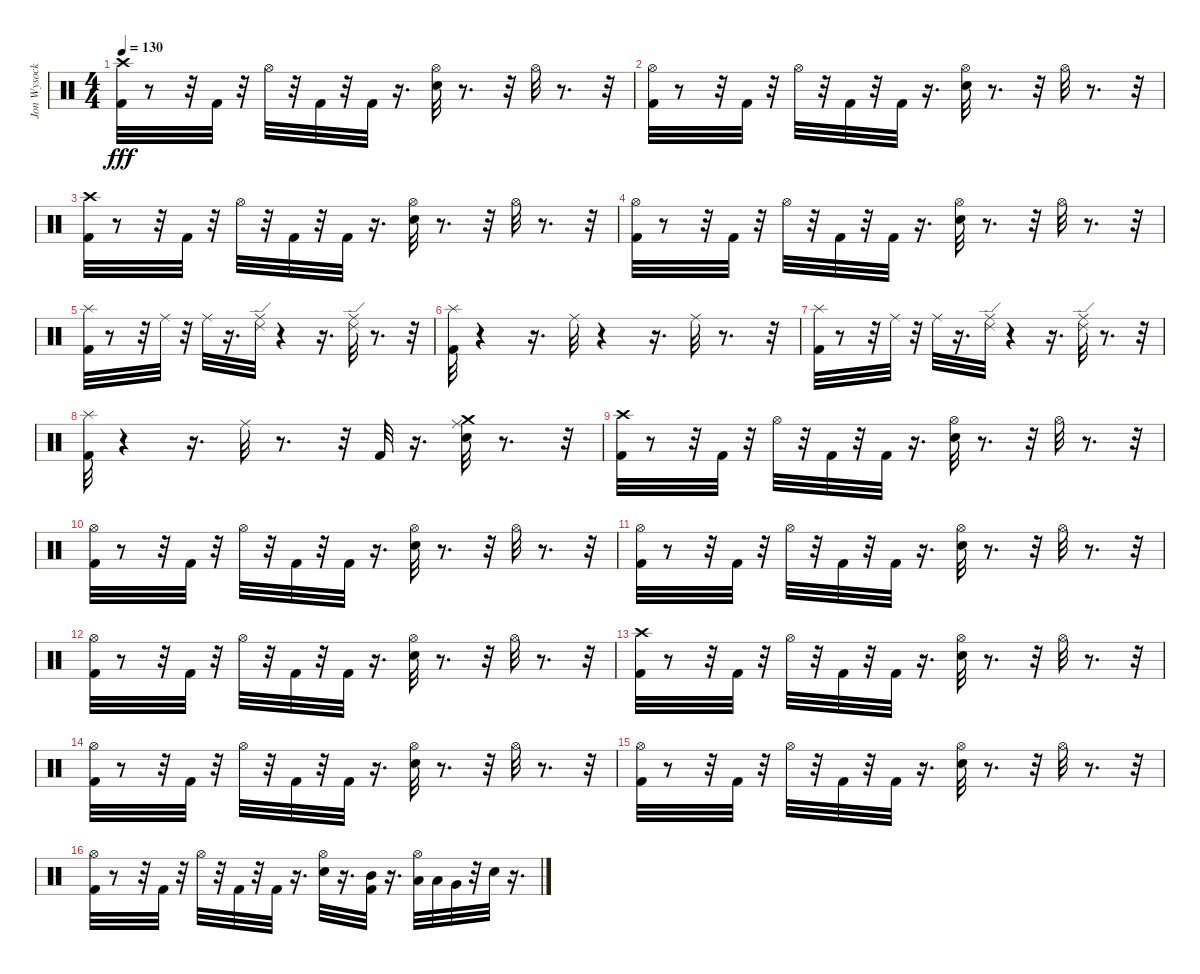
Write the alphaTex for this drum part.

\track ("Jon Wysocki - Drums" "Jon Wysock") {instrument percussion}
\staff {score}
\articulation defaults
\ts (4 4)
\tempo 130
\clef neutral
\ks c
("Crash high (hit)" "Kick (hit) 2").32{dy fff} r.8 r.32 "Kick (hit) 2".32 r.32 "Hi-Hat (open)".32 r.32 "Kick (hit) 2".32 r.32 "Kick (hit) 2".32 r.16{d} ("Hi-Hat (open)" "Electric Snare (hit)").32 r.8{d} r.32 "Hi-Hat (open)".32 r.8{d} r.32 |
("Hi-Hat (open)" "Kick (hit) 2").32 r.8 r.32 "Kick (hit) 2".32 r.32 "Hi-Hat (open)".32 r.32 "Kick (hit) 2".32 r.32 "Kick (hit) 2".32 r.16{d} ("Hi-Hat (open)" "Electric Snare (hit)").32 r.8{d} r.32 "Hi-Hat (open)".32 r.8{d} r.32 |
("Crash high (hit)" "Kick (hit) 2").32 r.8 r.32 "Kick (hit) 2".32 r.32 "Hi-Hat (open)".32 r.32 "Kick (hit) 2".32 r.32 "Kick (hit) 2".32 r.16{d} ("Hi-Hat (open)" "Electric Snare (hit)").32 r.8{d} r.32 "Hi-Hat (open)".32 r.8{d} r.32 |
("Hi-Hat (open)" "Kick (hit) 2").32 r.8 r.32 "Kick (hit) 2".32 r.32 "Hi-Hat (open)".32 r.32 "Kick (hit) 2".32 r.32 "Kick (hit) 2".32 r.16{d} ("Hi-Hat (open)" "Electric Snare (hit)").32 r.8{d} r.32 "Hi-Hat (open)".32 r.8{d} r.32 |
("Kick (hit) 2" "Splash (hit)").32 r.8 r.32 "Ride (middle)".32 r.32 "Ride (middle)".32 r.16{d} ("Ride (edge) 2" "Ride (middle)").32 r.4 r.16{d} ("Ride (edge) 2" "Ride (middle)").32 r.8{d} r.32 |
("Splash (hit)" "Kick (hit) 2").32 r.4 r.16{d} "Ride (middle)".32 r.4 r.16{d} "Ride (middle)".32 r.8{d} r.32 |
("Splash (hit)" "Kick (hit) 2").32 r.8 r.32 "Ride (middle)".32 r.32 "Ride (middle)".32 r.16{d} ("Ride (edge) 2" "Ride (middle)").32 r.4 r.16{d} ("Ride (edge) 2" "Ride (middle)").32 r.8{d} r.32 |
("Splash (hit)" "Kick (hit) 2").32 r.4 r.16{d} "Ride (middle)".32 r.8{d} r.32 "Kick (hit) 2".32 r.16{d} ("Crash medium (hit)" "Ride (middle)" "Electric Snare (hit)").32 r.8{d} r.32 |
("Crash high (hit)" "Kick (hit) 2").32 r.8 r.32 "Kick (hit) 2".32 r.32 "Hi-Hat (open)".32 r.32 "Kick (hit) 2".32 r.32 "Kick (hit) 2".32 r.16{d} ("Hi-Hat (open)" "Electric Snare (hit)").32 r.8{d} r.32 "Hi-Hat (open)".32 r.8{d} r.32 |
("Hi-Hat (open)" "Kick (hit) 2").32 r.8 r.32 "Kick (hit) 2".32 r.32 "Hi-Hat (open)".32 r.32 "Kick (hit) 2".32 r.32 "Kick (hit) 2".32 r.16{d} ("Hi-Hat (open)" "Electric Snare (hit)").32 r.8{d} r.32 "Hi-Hat (open)".32 r.8{d} r.32 |
("Hi-Hat (open)" "Kick (hit) 2").32 r.8 r.32 "Kick (hit) 2".32 r.32 "Hi-Hat (open)".32 r.32 "Kick (hit) 2".32 r.32 "Kick (hit) 2".32 r.16{d} ("Hi-Hat (open)" "Electric Snare (hit)").32 r.8{d} r.32 "Hi-Hat (open)".32 r.8{d} r.32 |
("Hi-Hat (open)" "Kick (hit) 2").32 r.8 r.32 "Kick (hit) 2".32 r.32 "Hi-Hat (open)".32 r.32 "Kick (hit) 2".32 r.32 "Kick (hit) 2".32 r.16{d} ("Hi-Hat (open)" "Electric Snare (hit)").32 r.8{d} r.32 "Hi-Hat (open)".32 r.8{d} r.32 |
("Crash high (hit)" "Kick (hit) 2").32 r.8 r.32 "Kick (hit) 2".32 r.32 "Hi-Hat (open)".32 r.32 "Kick (hit) 2".32 r.32 "Kick (hit) 2".32 r.16{d} ("Hi-Hat (open)" "Electric Snare (hit)").32 r.8{d} r.32 "Hi-Hat (open)".32 r.8{d} r.32 |
("Hi-Hat (open)" "Kick (hit) 2").32 r.8 r.32 "Kick (hit) 2".32 r.32 "Hi-Hat (open)".32 r.32 "Kick (hit) 2".32 r.32 "Kick (hit) 2".32 r.16{d} ("Hi-Hat (open)" "Electric Snare (hit)").32 r.8{d} r.32 "Hi-Hat (open)".32 r.8{d} r.32 |
("Hi-Hat (open)" "Kick (hit) 2").32 r.8 r.32 "Kick (hit) 2".32 r.32 "Hi-Hat (open)".32 r.32 "Kick (hit) 2".32 r.32 "Kick (hit) 2".32 r.16{d} ("Hi-Hat (open)" "Electric Snare (hit)").32 r.8{d} r.32 "Hi-Hat (open)".32 r.8{d} r.32 |
("Kick (hit) 2" "Hi-Hat (open)").32 r.8 r.32 "Kick (hit) 2".32 r.32 "Hi-Hat (open)".32 r.32 "Kick (hit) 2".32 r.32 "Kick (hit) 2".32 r.16{d} ("Hi-Hat (open)" "Electric Snare (hit)").32 r.16{d} ("Mid Tom (hit)" "Kick (hit) 2").32 r.16{d} ("Hi-Hat (open)" "Low Tom (hit)").32 "Low Tom (hit)".32 "Very Low Tom (hit)".32 r.32 "Electric Snare (hit)".32 r.16{d}
